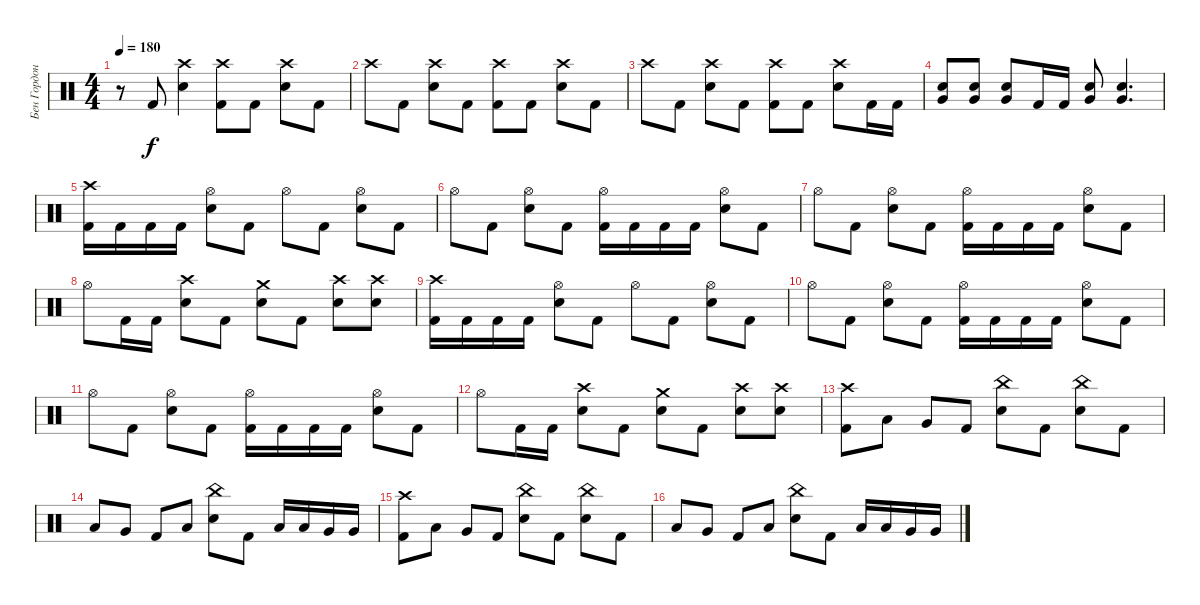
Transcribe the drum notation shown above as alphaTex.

\track ("Бен Гордон" "Бен Гордон") {instrument percussion}
\staff {score}
\articulation defaults
\ts (4 4)
\tempo 180
\clef neutral
\ks c
r.8{dy f} "Kick (hit) 2".8 ("Crash high (hit)" "Electric Snare (hit)").4 ("Crash high (hit)" "Kick (hit) 2").8 "Kick (hit) 2".8 ("Crash high (hit)" "Electric Snare (hit)").8 "Kick (hit) 2".8 |
"Crash high (hit)".8 "Kick (hit) 2".8 ("Crash high (hit)" "Electric Snare (hit)").8 "Kick (hit) 2".8 ("Crash high (hit)" "Kick (hit) 2").8 "Kick (hit) 2".8 ("Crash high (hit)" "Electric Snare (hit)").8 "Kick (hit) 2".8 |
"Crash high (hit)".8 "Kick (hit) 2".8 ("Crash high (hit)" "Electric Snare (hit)").8 "Kick (hit) 2".8 ("Crash high (hit)" "Kick (hit) 2").8 "Kick (hit) 2".8 ("Crash high (hit)" "Electric Snare (hit)").8 "Kick (hit) 2".16 "Kick (hit) 2".16 |
("Electric Snare (hit)" "Very Low Tom (hit)").8 ("Electric Snare (hit)" "Very Low Tom (hit)").8 ("Electric Snare (hit)" "Very Low Tom (hit)").8 "Kick (hit) 2".16 "Kick (hit) 2".16 ("Electric Snare (hit)" "Very Low Tom (hit)").8 ("Electric Snare (hit)" "Very Low Tom (hit)").4{d} |
("Crash high (hit)" "Kick (hit) 2").16 "Kick (hit) 2".16 "Kick (hit) 2".16 "Kick (hit) 2".16 ("Hi-Hat (open)" "Electric Snare (hit)").8 "Kick (hit) 2".8 "Hi-Hat (open)".8 "Kick (hit) 2".8 ("Hi-Hat (open)" "Electric Snare (hit)").8 "Kick (hit) 2".8 |
"Hi-Hat (open)".8 "Kick (hit) 2".8 ("Hi-Hat (open)" "Electric Snare (hit)").8 "Kick (hit) 2".8 ("Hi-Hat (open)" "Kick (hit) 2").16 "Kick (hit) 2".16 "Kick (hit) 2".16 "Kick (hit) 2".16 ("Hi-Hat (open)" "Electric Snare (hit)").8 "Kick (hit) 2".8 |
"Hi-Hat (open)".8 "Kick (hit) 2".8 ("Hi-Hat (open)" "Electric Snare (hit)").8 "Kick (hit) 2".8 ("Hi-Hat (open)" "Kick (hit) 2").16 "Kick (hit) 2".16 "Kick (hit) 2".16 "Kick (hit) 2".16 ("Hi-Hat (open)" "Electric Snare (hit)").8 "Kick (hit) 2".8 |
"Hi-Hat (open)".8 "Kick (hit) 2".16 "Kick (hit) 2".16 ("Crash high (hit)" "Electric Snare (hit)").8 "Kick (hit) 2".8 ("Crash medium (hit)" "Electric Snare (hit)").8 "Kick (hit) 2".8 ("Crash high (hit)" "Electric Snare (hit)").8 ("Crash high (hit)" "Electric Snare (hit)").8 |
("Crash high (hit)" "Kick (hit) 2").16 "Kick (hit) 2".16 "Kick (hit) 2".16 "Kick (hit) 2".16 ("Hi-Hat (open)" "Electric Snare (hit)").8 "Kick (hit) 2".8 "Hi-Hat (open)".8 "Kick (hit) 2".8 ("Hi-Hat (open)" "Electric Snare (hit)").8 "Kick (hit) 2".8 |
"Hi-Hat (open)".8 "Kick (hit) 2".8 ("Hi-Hat (open)" "Electric Snare (hit)").8 "Kick (hit) 2".8 ("Hi-Hat (open)" "Kick (hit) 2").16 "Kick (hit) 2".16 "Kick (hit) 2".16 "Kick (hit) 2".16 ("Hi-Hat (open)" "Electric Snare (hit)").8 "Kick (hit) 2".8 |
"Hi-Hat (open)".8 "Kick (hit) 2".8 ("Hi-Hat (open)" "Electric Snare (hit)").8 "Kick (hit) 2".8 ("Hi-Hat (open)" "Kick (hit) 2").16 "Kick (hit) 2".16 "Kick (hit) 2".16 "Kick (hit) 2".16 ("Hi-Hat (open)" "Electric Snare (hit)").8 "Kick (hit) 2".8 |
"Hi-Hat (open)".8 "Kick (hit) 2".16 "Kick (hit) 2".16 ("Crash high (hit)" "Electric Snare (hit)").8 "Kick (hit) 2".8 ("Crash medium (hit)" "Electric Snare (hit)").8 "Kick (hit) 2".8 ("Crash high (hit)" "Electric Snare (hit)").8 ("Crash high (hit)" "Electric Snare (hit)").8 |
("Crash high (hit)" "Kick (hit) 2").8 "Low Tom (hit)".8 "Very Low Tom (hit)".8 "Kick (hit) 2".8 ("China (hit)" "Electric Snare (hit)").8 "Kick (hit) 2".8 ("China (hit)" "Electric Snare (hit)").8 "Kick (hit) 2".8 |
"Low Tom (hit)".8 "Very Low Tom (hit)".8 "Kick (hit) 2".8 "Low Floor Tom (hit)".8 ("China (hit)" "Electric Snare (hit)").8 "Kick (hit) 2".8 "Low Tom (hit)".16 "Low Tom (hit)".16 "Very Low Tom (hit)".16 "Very Low Tom (hit)".16 |
("Crash high (hit)" "Kick (hit) 2").8 "Low Tom (hit)".8 "Very Low Tom (hit)".8 "Kick (hit) 2".8 ("China (hit)" "Electric Snare (hit)").8 "Kick (hit) 2".8 ("China (hit)" "Electric Snare (hit)").8 "Kick (hit) 2".8 |
"Low Tom (hit)".8 "Very Low Tom (hit)".8 "Kick (hit) 2".8 "Low Floor Tom (hit)".8 ("China (hit)" "Electric Snare (hit)").8 "Kick (hit) 2".8 "Low Tom (hit)".16 "Low Tom (hit)".16 "Very Low Tom (hit)".16 "Very Low Tom (hit)".16
